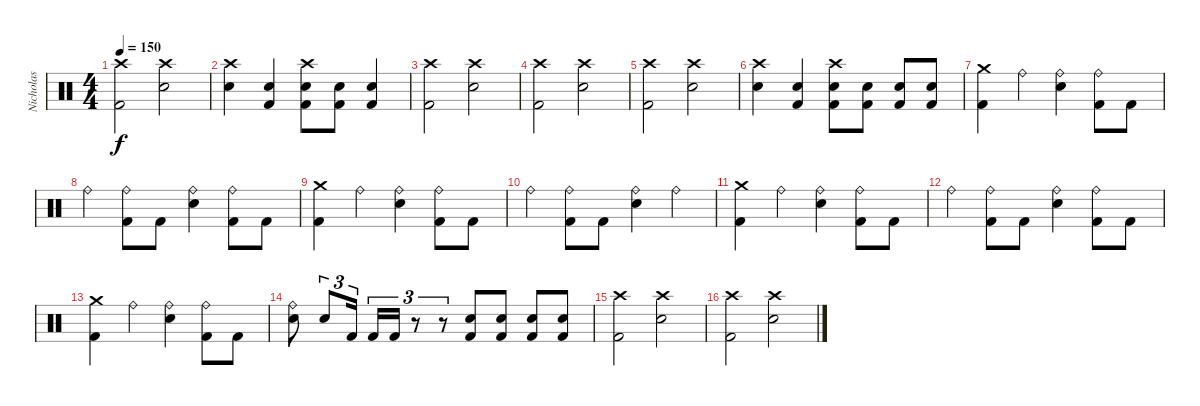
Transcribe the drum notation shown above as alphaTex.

\track ("Nicholas" "Nicholas") {instrument percussion}
\staff {score}
\articulation defaults
\ts (4 4)
\tempo 150
\clef neutral
\ks c
("Crash high (hit)" "Kick (hit) 2").2{dy f} ("Crash high (hit)" "Electric Snare (hit)").2 |
("Crash high (hit)" "Electric Snare (hit)").4 ("Electric Snare (hit)" "Kick (hit) 2").4 ("Crash high (hit)" "Electric Snare (hit)" "Kick (hit) 2").8 ("Electric Snare (hit)" "Kick (hit) 2").8 ("Electric Snare (hit)" "Kick (hit) 2").4 |
("Crash high (hit)" "Kick (hit) 2").2 ("Crash high (hit)" "Electric Snare (hit)").2 |
("Crash high (hit)" "Kick (hit) 2").2 ("Crash high (hit)" "Electric Snare (hit)").2 |
("Crash high (hit)" "Kick (hit) 2").2 ("Crash high (hit)" "Electric Snare (hit)").2 |
("Crash high (hit)" "Electric Snare (hit)").4 ("Electric Snare (hit)" "Kick (hit) 2").4 ("Crash high (hit)" "Electric Snare (hit)" "Kick (hit) 2").8 ("Electric Snare (hit)" "Kick (hit) 2").8 ("Electric Snare (hit)" "Kick (hit) 2").8 ("Electric Snare (hit)" "Kick (hit) 2").8 |
("Crash medium (hit)" "Kick (hit) 2").4 "Ride (bell)".4 ("Ride (bell)" "Electric Snare (hit)").4 ("Ride (bell)" "Kick (hit) 2").8 "Kick (hit) 2".8 |
"Ride (bell)".4 ("Ride (bell)" "Kick (hit) 2").8 "Kick (hit) 2".8 ("Ride (bell)" "Electric Snare (hit)").4 ("Ride (bell)" "Kick (hit) 2").8 "Kick (hit) 2".8 |
("Crash medium (hit)" "Kick (hit) 2").4 "Ride (bell)".4 ("Ride (bell)" "Electric Snare (hit)").4 ("Ride (bell)" "Kick (hit) 2").8 "Kick (hit) 2".8 |
"Ride (bell)".4 ("Ride (bell)" "Kick (hit) 2").8 "Kick (hit) 2".8 ("Ride (bell)" "Electric Snare (hit)").4 "Ride (bell)".4 |
("Crash medium (hit)" "Kick (hit) 2").4 "Ride (bell)".4 ("Ride (bell)" "Electric Snare (hit)").4 ("Ride (bell)" "Kick (hit) 2").8 "Kick (hit) 2".8 |
"Ride (bell)".4 ("Ride (bell)" "Kick (hit) 2").8 "Kick (hit) 2".8 ("Ride (bell)" "Electric Snare (hit)").4 ("Ride (bell)" "Kick (hit) 2").8 "Kick (hit) 2".8 |
("Crash medium (hit)" "Kick (hit) 2").4 "Ride (bell)".4 ("Ride (bell)" "Electric Snare (hit)").4 ("Ride (bell)" "Kick (hit) 2").8 "Kick (hit) 2".8 |
("Ride (bell)" "Electric Snare (hit)").8 "Electric Snare (hit)".8{tu (3 2)} "Kick (hit) 2".16{tu (3 2)} "Kick (hit) 2".16{tu (3 2)} "Kick (hit) 2".16{tu (3 2)} r.8{tu (3 2)} r.8{tu (3 2)} ("Electric Snare (hit)" "Kick (hit) 2").8 ("Electric Snare (hit)" "Kick (hit) 2").8 ("Electric Snare (hit)" "Kick (hit) 2").8 ("Electric Snare (hit)" "Kick (hit) 2").8 |
("Crash high (hit)" "Kick (hit) 2").2 ("Crash high (hit)" "Electric Snare (hit)").2 |
("Crash high (hit)" "Kick (hit) 2").2 ("Crash high (hit)" "Electric Snare (hit)").2
